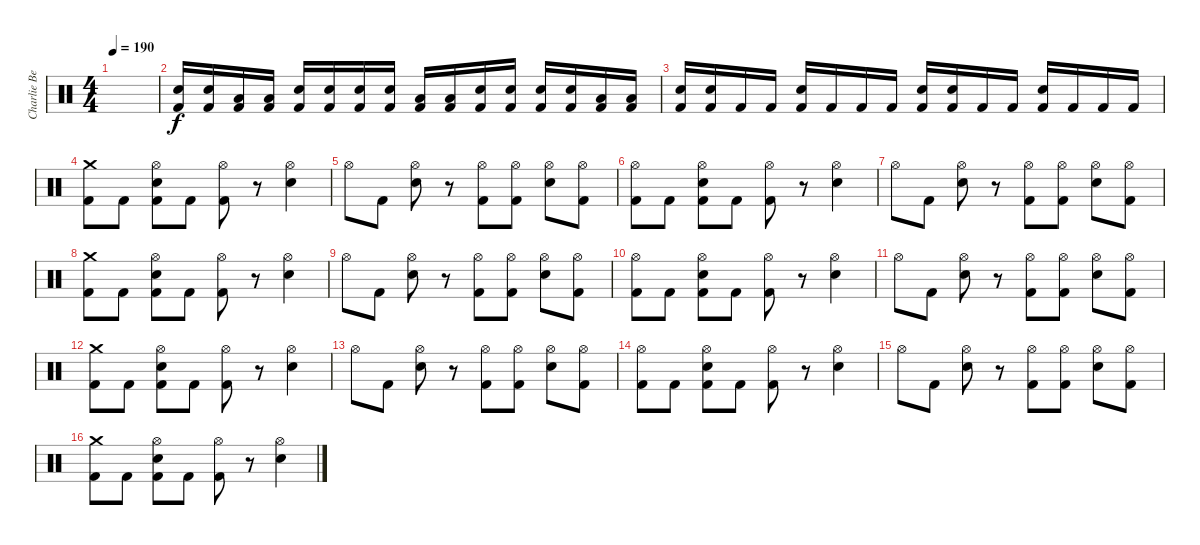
\track ("Charlie Benante" "Charlie Be") {instrument percussion}
\staff {score}
\articulation defaults
\ts (4 4)
\tempo 190
\clef neutral
\ks c
|
("Snare (hit) 2" "Kick (hit) 2").16 ("Snare (hit) 2" "Kick (hit) 2").16 ("Low Tom (hit)" "Kick (hit) 2").16 ("Low Tom (hit)" "Kick (hit) 2").16 ("Snare (hit) 2" "Kick (hit) 2").16 ("Snare (hit) 2" "Kick (hit) 2").16 ("Snare (hit) 2" "Kick (hit) 2").16 ("Snare (hit) 2" "Kick (hit) 2").16 ("Low Tom (hit)" "Kick (hit) 2").16 ("Low Tom (hit)" "Kick (hit) 2").16 ("Snare (hit) 2" "Kick (hit) 2").16 ("Snare (hit) 2" "Kick (hit) 2").16 ("Snare (hit) 2" "Kick (hit) 2").16 ("Snare (hit) 2" "Kick (hit) 2").16 ("Low Tom (hit)" "Kick (hit) 2").16 ("Low Tom (hit)" "Kick (hit) 2").16 |
("Snare (hit) 2" "Kick (hit) 2").16 ("Snare (hit) 2" "Kick (hit) 2").16 "Kick (hit) 2".16 "Kick (hit) 2".16 ("Snare (hit) 2" "Kick (hit) 2").16 "Kick (hit) 2".16 "Kick (hit) 2".16 "Kick (hit) 2".16 ("Snare (hit) 2" "Kick (hit) 2").16 ("Snare (hit) 2" "Kick (hit) 2").16 "Kick (hit) 2".16 "Kick (hit) 2".16 ("Snare (hit) 2" "Kick (hit) 2").16 "Kick (hit) 2".16 "Kick (hit) 2".16 "Kick (hit) 2".16 |
("Crash medium (hit)" "Kick (hit) 2").8 "Kick (hit) 2".8 ("Snare (hit) 2" "Hi-Hat (open)" "Kick (hit) 2").8 "Kick (hit) 2".8 ("Hi-Hat (open)" "Kick (hit) 2").8 r.8 ("Snare (hit) 2" "Hi-Hat (open)").4 |
"Hi-Hat (open)".8 "Kick (hit) 2".8 ("Snare (hit) 2" "Hi-Hat (open)").8 r.8 ("Hi-Hat (open)" "Kick (hit) 2").8 ("Hi-Hat (open)" "Kick (hit) 2").8 ("Snare (hit) 2" "Hi-Hat (open)").8 ("Hi-Hat (open)" "Kick (hit) 2").8 |
("Hi-Hat (open)" "Kick (hit) 2").8 "Kick (hit) 2".8 ("Snare (hit) 2" "Hi-Hat (open)" "Kick (hit) 2").8 "Kick (hit) 2".8 ("Hi-Hat (open)" "Kick (hit) 2").8 r.8 ("Snare (hit) 2" "Hi-Hat (open)").4 |
"Hi-Hat (open)".8 "Kick (hit) 2".8 ("Snare (hit) 2" "Hi-Hat (open)").8 r.8 ("Hi-Hat (open)" "Kick (hit) 2").8 ("Hi-Hat (open)" "Kick (hit) 2").8 ("Snare (hit) 2" "Hi-Hat (open)").8 ("Hi-Hat (open)" "Kick (hit) 2").8 |
("Crash medium (hit)" "Kick (hit) 2").8 "Kick (hit) 2".8 ("Snare (hit) 2" "Hi-Hat (open)" "Kick (hit) 2").8 "Kick (hit) 2".8 ("Hi-Hat (open)" "Kick (hit) 2").8 r.8 ("Snare (hit) 2" "Hi-Hat (open)").4 |
"Hi-Hat (open)".8 "Kick (hit) 2".8 ("Snare (hit) 2" "Hi-Hat (open)").8 r.8 ("Hi-Hat (open)" "Kick (hit) 2").8 ("Hi-Hat (open)" "Kick (hit) 2").8 ("Snare (hit) 2" "Hi-Hat (open)").8 ("Hi-Hat (open)" "Kick (hit) 2").8 |
("Hi-Hat (open)" "Kick (hit) 2").8 "Kick (hit) 2".8 ("Snare (hit) 2" "Hi-Hat (open)" "Kick (hit) 2").8 "Kick (hit) 2".8 ("Hi-Hat (open)" "Kick (hit) 2").8 r.8 ("Snare (hit) 2" "Hi-Hat (open)").4 |
"Hi-Hat (open)".8 "Kick (hit) 2".8 ("Snare (hit) 2" "Hi-Hat (open)").8 r.8 ("Hi-Hat (open)" "Kick (hit) 2").8 ("Hi-Hat (open)" "Kick (hit) 2").8 ("Snare (hit) 2" "Hi-Hat (open)").8 ("Hi-Hat (open)" "Kick (hit) 2").8 |
("Crash medium (hit)" "Kick (hit) 2").8 "Kick (hit) 2".8 ("Snare (hit) 2" "Hi-Hat (open)" "Kick (hit) 2").8 "Kick (hit) 2".8 ("Hi-Hat (open)" "Kick (hit) 2").8 r.8 ("Snare (hit) 2" "Hi-Hat (open)").4 |
"Hi-Hat (open)".8 "Kick (hit) 2".8 ("Snare (hit) 2" "Hi-Hat (open)").8 r.8 ("Hi-Hat (open)" "Kick (hit) 2").8 ("Hi-Hat (open)" "Kick (hit) 2").8 ("Snare (hit) 2" "Hi-Hat (open)").8 ("Hi-Hat (open)" "Kick (hit) 2").8 |
("Hi-Hat (open)" "Kick (hit) 2").8 "Kick (hit) 2".8 ("Snare (hit) 2" "Hi-Hat (open)" "Kick (hit) 2").8 "Kick (hit) 2".8 ("Hi-Hat (open)" "Kick (hit) 2").8 r.8 ("Snare (hit) 2" "Hi-Hat (open)").4 |
"Hi-Hat (open)".8 "Kick (hit) 2".8 ("Snare (hit) 2" "Hi-Hat (open)").8 r.8 ("Hi-Hat (open)" "Kick (hit) 2").8 ("Hi-Hat (open)" "Kick (hit) 2").8 ("Snare (hit) 2" "Hi-Hat (open)").8 ("Hi-Hat (open)" "Kick (hit) 2").8 |
("Crash medium (hit)" "Kick (hit) 2").8 "Kick (hit) 2".8 ("Snare (hit) 2" "Hi-Hat (open)" "Kick (hit) 2").8 "Kick (hit) 2".8 ("Hi-Hat (open)" "Kick (hit) 2").8 r.8 ("Snare (hit) 2" "Hi-Hat (open)").4
